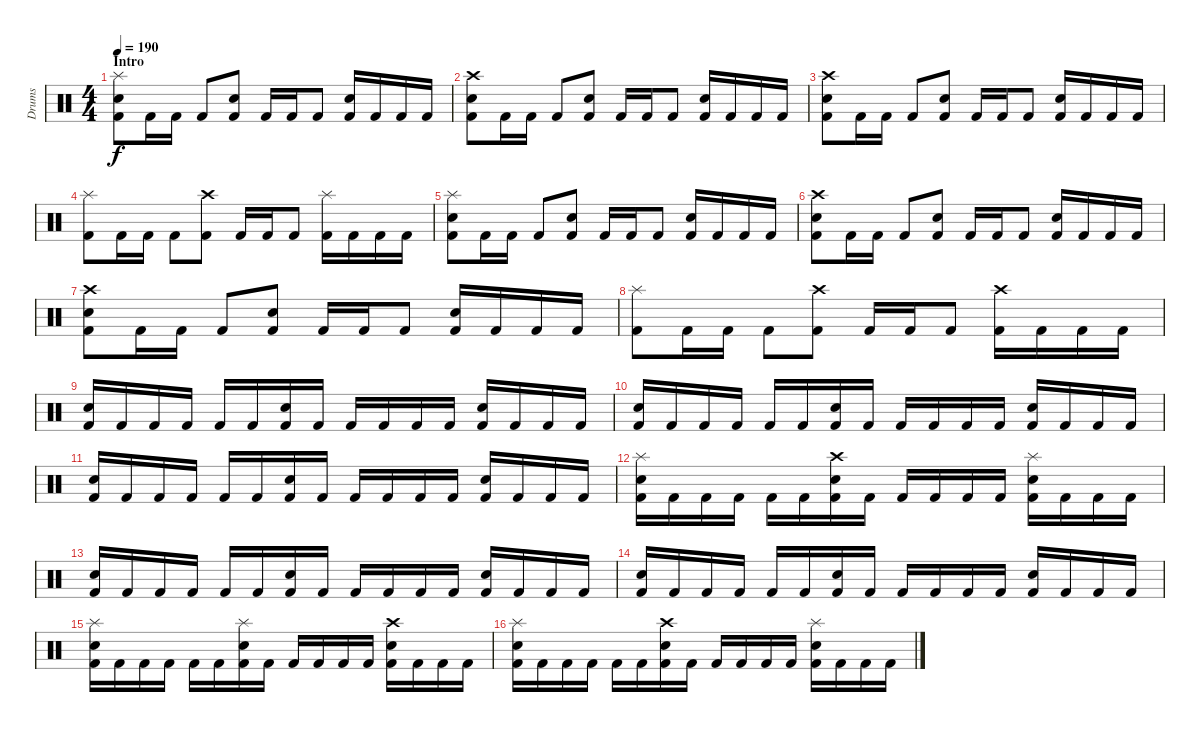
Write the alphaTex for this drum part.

\track ("Drums" "Drums") {instrument percussion}
\staff {score}
\articulation defaults
\ts (4 4)
\section ("" "Intro")
\tempo 190
\clef neutral
\ks c
("Splash (hit)" "Electric Snare (hit)" "Kick (hit) 2").8{dy f} "Kick (hit) 2".16 "Kick (hit) 2".16 "Kick (hit) 2".8 ("Electric Snare (hit)" "Kick (hit) 2").8 "Kick (hit) 2".16 "Kick (hit) 2".16 "Kick (hit) 2".8 ("Electric Snare (hit)" "Kick (hit) 2").16 "Kick (hit) 2".16 "Kick (hit) 2".16 "Kick (hit) 2".16 |
("Crash high (hit)" "Electric Snare (hit)" "Kick (hit) 2").8 "Kick (hit) 2".16 "Kick (hit) 2".16 "Kick (hit) 2".8 ("Electric Snare (hit)" "Kick (hit) 2").8 "Kick (hit) 2".16 "Kick (hit) 2".16 "Kick (hit) 2".8 ("Electric Snare (hit)" "Kick (hit) 2").16 "Kick (hit) 2".16 "Kick (hit) 2".16 "Kick (hit) 2".16 |
("Crash high (hit)" "Electric Snare (hit)" "Kick (hit) 2").8 "Kick (hit) 2".16 "Kick (hit) 2".16 "Kick (hit) 2".8 ("Electric Snare (hit)" "Kick (hit) 2").8 "Kick (hit) 2".16 "Kick (hit) 2".16 "Kick (hit) 2".8 ("Electric Snare (hit)" "Kick (hit) 2").16 "Kick (hit) 2".16 "Kick (hit) 2".16 "Kick (hit) 2".16 |
("Splash (hit)" "Kick (hit) 2").8 "Kick (hit) 2".16 "Kick (hit) 2".16 "Kick (hit) 2".8 ("Crash high (hit)" "Kick (hit) 2").8 "Kick (hit) 2".16 "Kick (hit) 2".16 "Kick (hit) 2".8 ("Splash (hit)" "Kick (hit) 2").16 "Kick (hit) 2".16 "Kick (hit) 2".16 "Kick (hit) 2".16 |
("Splash (hit)" "Electric Snare (hit)" "Kick (hit) 2").8 "Kick (hit) 2".16 "Kick (hit) 2".16 "Kick (hit) 2".8 ("Electric Snare (hit)" "Kick (hit) 2").8 "Kick (hit) 2".16 "Kick (hit) 2".16 "Kick (hit) 2".8 ("Electric Snare (hit)" "Kick (hit) 2").16 "Kick (hit) 2".16 "Kick (hit) 2".16 "Kick (hit) 2".16 |
("Crash high (hit)" "Electric Snare (hit)" "Kick (hit) 2").8 "Kick (hit) 2".16 "Kick (hit) 2".16 "Kick (hit) 2".8 ("Electric Snare (hit)" "Kick (hit) 2").8 "Kick (hit) 2".16 "Kick (hit) 2".16 "Kick (hit) 2".8 ("Electric Snare (hit)" "Kick (hit) 2").16 "Kick (hit) 2".16 "Kick (hit) 2".16 "Kick (hit) 2".16 |
("Crash high (hit)" "Electric Snare (hit)" "Kick (hit) 2").8 "Kick (hit) 2".16 "Kick (hit) 2".16 "Kick (hit) 2".8 ("Electric Snare (hit)" "Kick (hit) 2").8 "Kick (hit) 2".16 "Kick (hit) 2".16 "Kick (hit) 2".8 ("Electric Snare (hit)" "Kick (hit) 2").16 "Kick (hit) 2".16 "Kick (hit) 2".16 "Kick (hit) 2".16 |
("Splash (hit)" "Kick (hit) 2").8 "Kick (hit) 2".16 "Kick (hit) 2".16 "Kick (hit) 2".8 ("Crash high (hit)" "Kick (hit) 2").8 "Kick (hit) 2".16 "Kick (hit) 2".16 "Kick (hit) 2".8 ("Crash high (hit)" "Kick (hit) 2").16 "Kick (hit) 2".16 "Kick (hit) 2".16 "Kick (hit) 2".16 |
("Electric Snare (hit)" "Kick (hit) 2").16 "Kick (hit) 2".16 "Kick (hit) 2".16 "Kick (hit) 2".16 "Kick (hit) 2".16 "Kick (hit) 2".16 ("Electric Snare (hit)" "Kick (hit) 2").16 "Kick (hit) 2".16 "Kick (hit) 2".16 "Kick (hit) 2".16 "Kick (hit) 2".16 "Kick (hit) 2".16 ("Electric Snare (hit)" "Kick (hit) 2").16 "Kick (hit) 2".16 "Kick (hit) 2".16 "Kick (hit) 2".16 |
("Electric Snare (hit)" "Kick (hit) 2").16 "Kick (hit) 2".16 "Kick (hit) 2".16 "Kick (hit) 2".16 "Kick (hit) 2".16 "Kick (hit) 2".16 ("Electric Snare (hit)" "Kick (hit) 2").16 "Kick (hit) 2".16 "Kick (hit) 2".16 "Kick (hit) 2".16 "Kick (hit) 2".16 "Kick (hit) 2".16 ("Electric Snare (hit)" "Kick (hit) 2").16 "Kick (hit) 2".16 "Kick (hit) 2".16 "Kick (hit) 2".16 |
("Electric Snare (hit)" "Kick (hit) 2").16 "Kick (hit) 2".16 "Kick (hit) 2".16 "Kick (hit) 2".16 "Kick (hit) 2".16 "Kick (hit) 2".16 ("Electric Snare (hit)" "Kick (hit) 2").16 "Kick (hit) 2".16 "Kick (hit) 2".16 "Kick (hit) 2".16 "Kick (hit) 2".16 "Kick (hit) 2".16 ("Electric Snare (hit)" "Kick (hit) 2").16 "Kick (hit) 2".16 "Kick (hit) 2".16 "Kick (hit) 2".16 |
("Splash (hit)" "Electric Snare (hit)" "Kick (hit) 2").16 "Kick (hit) 2".16 "Kick (hit) 2".16 "Kick (hit) 2".16 "Kick (hit) 2".16 "Kick (hit) 2".16 ("Crash high (hit)" "Electric Snare (hit)" "Kick (hit) 2").16 "Kick (hit) 2".16 "Kick (hit) 2".16 "Kick (hit) 2".16 "Kick (hit) 2".16 "Kick (hit) 2".16 ("Splash (hit)" "Electric Snare (hit)" "Kick (hit) 2").16 "Kick (hit) 2".16 "Kick (hit) 2".16 "Kick (hit) 2".16 |
("Electric Snare (hit)" "Kick (hit) 2").16 "Kick (hit) 2".16 "Kick (hit) 2".16 "Kick (hit) 2".16 "Kick (hit) 2".16 "Kick (hit) 2".16 ("Electric Snare (hit)" "Kick (hit) 2").16 "Kick (hit) 2".16 "Kick (hit) 2".16 "Kick (hit) 2".16 "Kick (hit) 2".16 "Kick (hit) 2".16 ("Electric Snare (hit)" "Kick (hit) 2").16 "Kick (hit) 2".16 "Kick (hit) 2".16 "Kick (hit) 2".16 |
("Electric Snare (hit)" "Kick (hit) 2").16 "Kick (hit) 2".16 "Kick (hit) 2".16 "Kick (hit) 2".16 "Kick (hit) 2".16 "Kick (hit) 2".16 ("Electric Snare (hit)" "Kick (hit) 2").16 "Kick (hit) 2".16 "Kick (hit) 2".16 "Kick (hit) 2".16 "Kick (hit) 2".16 "Kick (hit) 2".16 ("Electric Snare (hit)" "Kick (hit) 2").16 "Kick (hit) 2".16 "Kick (hit) 2".16 "Kick (hit) 2".16 |
("Splash (hit)" "Electric Snare (hit)" "Kick (hit) 2").16 "Kick (hit) 2".16 "Kick (hit) 2".16 "Kick (hit) 2".16 "Kick (hit) 2".16 "Kick (hit) 2".16 ("Splash (hit)" "Electric Snare (hit)" "Kick (hit) 2").16 "Kick (hit) 2".16 "Kick (hit) 2".16 "Kick (hit) 2".16 "Kick (hit) 2".16 "Kick (hit) 2".16 ("Crash high (hit)" "Electric Snare (hit)" "Kick (hit) 2").16 "Kick (hit) 2".16 "Kick (hit) 2".16 "Kick (hit) 2".16 |
("Splash (hit)" "Electric Snare (hit)" "Kick (hit) 2").16 "Kick (hit) 2".16 "Kick (hit) 2".16 "Kick (hit) 2".16 "Kick (hit) 2".16 "Kick (hit) 2".16 ("Crash high (hit)" "Electric Snare (hit)" "Kick (hit) 2").16 "Kick (hit) 2".16 "Kick (hit) 2".16 "Kick (hit) 2".16 "Kick (hit) 2".16 "Kick (hit) 2".16 ("Splash (hit)" "Electric Snare (hit)" "Kick (hit) 2").16 "Kick (hit) 2".16 "Kick (hit) 2".16 "Kick (hit) 2".16
